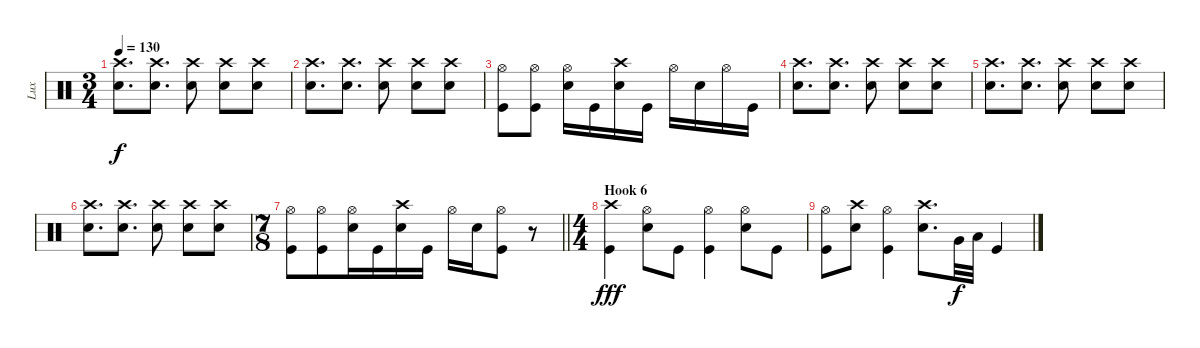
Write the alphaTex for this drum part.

\track ("Lux" "Lux") {instrument percussion}
\staff {score}
\articulation defaults
\ts (3 4)
\tempo 130
\clef neutral
\ks c
("Crash high (hit)" "Snare (hit) 2").8{d dy f} ("Crash high (hit)" "Snare (hit) 2").8{d} ("Crash high (hit)" "Snare (hit) 2").8 ("Crash high (hit)" "Snare (hit) 2").8 ("Crash high (hit)" "Snare (hit) 2").8 |
("Crash high (hit)" "Snare (hit) 2").8{d} ("Crash high (hit)" "Snare (hit) 2").8{d} ("Crash high (hit)" "Snare (hit) 2").8 ("Crash high (hit)" "Snare (hit) 2").8 ("Crash high (hit)" "Snare (hit) 2").8 |
("Hi-Hat (open)" "Kick (hit)").8 ("Hi-Hat (open)" "Kick (hit)").8 ("Hi-Hat (open)" "Snare (hit) 2").16 "Kick (hit)".16 ("Crash high (hit)" "Snare (hit) 2").16 "Kick (hit)".16 "Hi-Hat (open)".16 "Snare (hit) 2".16 "Hi-Hat (open)".16 "Kick (hit)".16 |
("Crash high (hit)" "Snare (hit) 2").8{d} ("Crash high (hit)" "Snare (hit) 2").8{d} ("Crash high (hit)" "Snare (hit) 2").8 ("Crash high (hit)" "Snare (hit) 2").8 ("Crash high (hit)" "Snare (hit) 2").8 |
("Crash high (hit)" "Snare (hit) 2").8{d} ("Crash high (hit)" "Snare (hit) 2").8{d} ("Crash high (hit)" "Snare (hit) 2").8 ("Crash high (hit)" "Snare (hit) 2").8 ("Crash high (hit)" "Snare (hit) 2").8 |
("Crash high (hit)" "Snare (hit) 2").8{d} ("Crash high (hit)" "Snare (hit) 2").8{d} ("Crash high (hit)" "Snare (hit) 2").8 ("Crash high (hit)" "Snare (hit) 2").8 ("Crash high (hit)" "Snare (hit) 2").8 |
\ts (7 8)
\barLineRight lightlight
("Hi-Hat (open)" "Kick (hit)").8 ("Hi-Hat (open)" "Kick (hit)").8 ("Hi-Hat (open)" "Snare (hit) 2").16 "Kick (hit)".16 ("Crash high (hit)" "Snare (hit) 2").16 "Kick (hit)".16 "Hi-Hat (open)".16 "Snare (hit) 2".16 ("Hi-Hat (open)" "Kick (hit)").8 r.8 |
\ts (4 4)
\section ("" "Hook 6")
("Crash high (hit)" "Kick (hit)").4{dy fff} ("Hi-Hat (open)" "Snare (hit) 2").8 "Kick (hit)".8 ("Hi-Hat (open)" "Kick (hit)").4 ("Hi-Hat (open)" "Snare (hit) 2").8 "Kick (hit)".8 |
("Hi-Hat (open)" "Kick (hit)").8 ("Crash high (hit)" "Snare (hit) 2").8 ("Hi-Hat (open)" "Kick (hit)").4 ("Crash high (hit)" "Snare (hit) 2").8{d} "Very Low Tom (hit)".32{dy f} "Low Tom (hit)".32 "Kick (hit)".4
